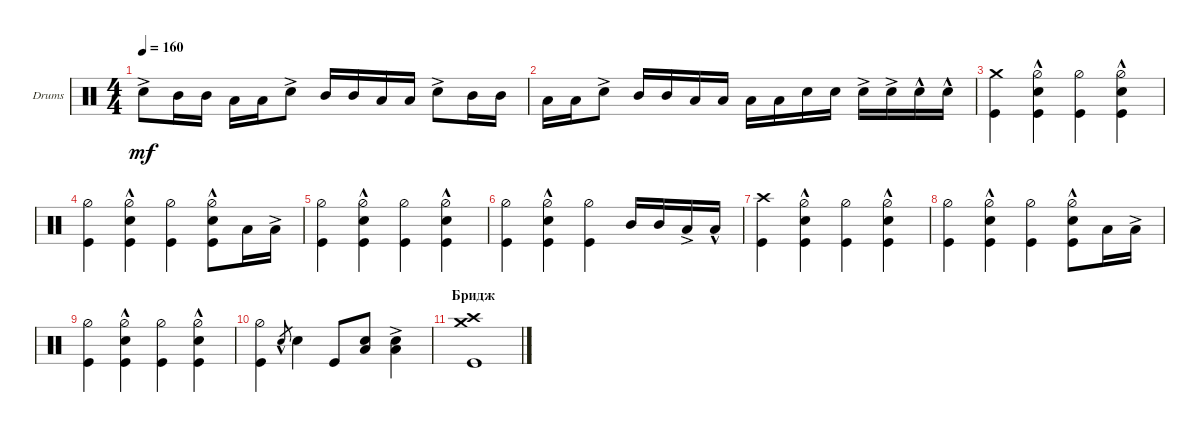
\defaultSystemsLayout 4
\bracketExtendMode groupsimilarinstruments
\firstSystemTrackNameOrientation horizontal
\otherSystemsTrackNameOrientation horizontal
\track ("Drumkit" "Drums") {instrument percussion}
\staff {score}
\articulation defaults
\ts (4 4)
\tempo 160
\clef neutral
\ks c "Snare (hit) 2"{ac}.8{dy mf} "Mid Tom (hit)".16 "Mid Tom (hit)".16 "Low Tom (hit)".16 "Low Tom (hit)".16 "Snare (hit) 2"{ac}.8 "Mid Tom (hit)".16 "Mid Tom (hit)".16 "Low Tom (hit)".16 "Low Tom (hit)".16 "Snare (hit) 2"{ac}.8 "Mid Tom (hit)".16 "Mid Tom (hit)".16
|
"Low Tom (hit)".16 "Low Tom (hit)".16 "Snare (hit) 2"{ac}.8 "Mid Tom (hit)".16 "Mid Tom (hit)".16 "Low Tom (hit)".16 "Low Tom (hit)".16 "Low Tom (hit)".16 "Low Tom (hit)".16 "Snare (hit) 2".16 "Snare (hit) 2".16 "Snare (hit) 2"{ac}.16 "Snare (hit) 2"{ac}.16 "Snare (hit) 2"{hac}.16 "Snare (hit) 2"{hac}.16 |
("Kick (hit)" "Crash medium (hit)").4 ("Kick (hit)" "Snare (hit) 2"{hac} "Hi-Hat (half)").4 ("Kick (hit)" "Hi-Hat (half)").4 ("Kick (hit)" "Snare (hit) 2"{hac} "Hi-Hat (half)").4 |
("Kick (hit)" "Hi-Hat (half)").4 ("Kick (hit)" "Snare (hit) 2"{hac} "Hi-Hat (half)").4 ("Kick (hit)" "Hi-Hat (half)").4 ("Kick (hit)" "Snare (hit) 2"{hac} "Hi-Hat (half)").8 "Low Tom (hit)".16 "Low Tom (hit)"{ac}.16 |
("Kick (hit)" "Hi-Hat (half)").4 ("Kick (hit)" "Snare (hit) 2"{hac} "Hi-Hat (half)").4 ("Kick (hit)" "Hi-Hat (half)").4 ("Kick (hit)" "Snare (hit) 2"{hac} "Hi-Hat (half)").4 |
("Kick (hit)" "Hi-Hat (half)").4 ("Kick (hit)" "Snare (hit) 2"{hac} "Hi-Hat (half)").4 ("Kick (hit)" "Hi-Hat (half)").4 "Mid Tom (hit)".16 "Mid Tom (hit)".16 "Low Tom (hit)"{ac}.16 "Low Tom (hit)"{hac}.16 |
("Kick (hit)" "Crash high (hit)").4 ("Kick (hit)" "Snare (hit) 2"{hac} "Hi-Hat (half)").4 ("Kick (hit)" "Hi-Hat (half)").4 ("Kick (hit)" "Snare (hit) 2"{hac} "Hi-Hat (half)").4 |
("Kick (hit)" "Hi-Hat (half)").4 ("Kick (hit)" "Snare (hit) 2"{hac} "Hi-Hat (half)").4 ("Kick (hit)" "Hi-Hat (half)").4 ("Kick (hit)" "Snare (hit) 2"{hac} "Hi-Hat (half)").8 "Low Tom (hit)".16 "Low Tom (hit)"{ac}.16 |
("Kick (hit)" "Hi-Hat (half)").4 ("Kick (hit)" "Snare (hit) 2"{hac} "Hi-Hat (half)").4 ("Kick (hit)" "Hi-Hat (half)").4 ("Kick (hit)" "Snare (hit) 2"{hac} "Hi-Hat (half)").4 |
("Kick (hit)" "Hi-Hat (half)").4 "Snare (hit) 2"{hac}.8{gr} "Snare (hit) 2".4 "Kick (hit)".8 ("Low Tom (hit)" "Snare (hit) 2").8 ("Low Tom (hit)"{ac} "Snare (hit) 2"{ac}).4 |
\section ("" "Бридж")
("Kick (hit)" "Crash medium (hit)" "Crash high (hit)").1
